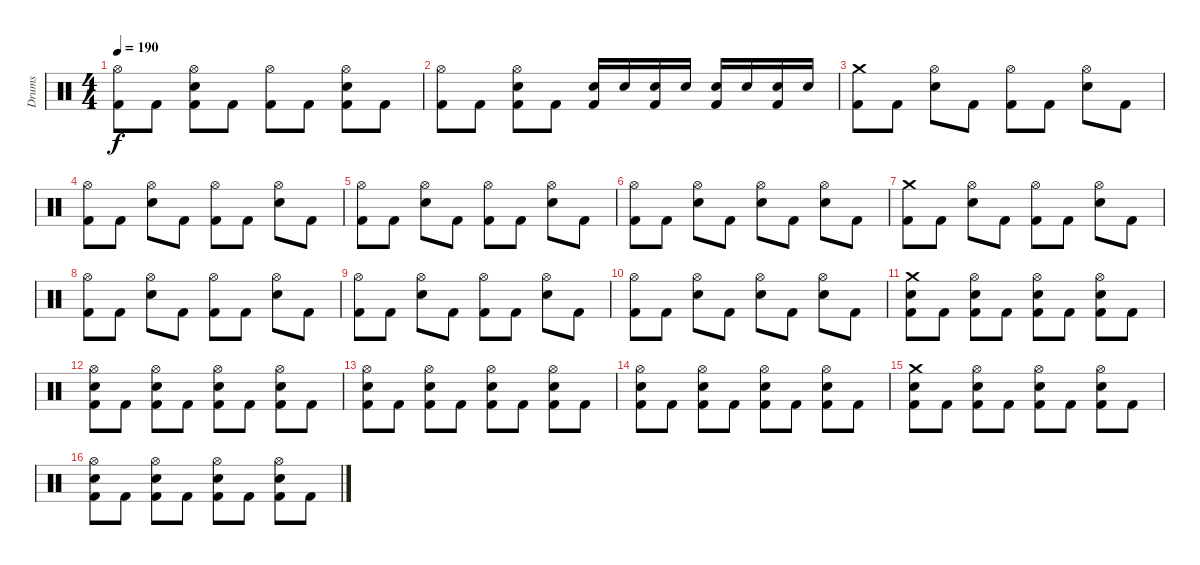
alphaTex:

\track ("Drums" "Drums") {instrument percussion}
\staff {score}
\articulation defaults
\ts (4 4)
\tempo 190
\clef neutral
\ks c
("Hi-Hat (open)" "Kick (hit) 2").8{dy f} "Kick (hit) 2".8 ("Hi-Hat (open)" "Kick (hit) 2" "Snare (hit) 2").8 "Kick (hit) 2".8 ("Hi-Hat (open)" "Kick (hit) 2").8 "Kick (hit) 2".8 ("Hi-Hat (open)" "Kick (hit) 2" "Snare (hit) 2").8 "Kick (hit) 2".8 |
("Hi-Hat (open)" "Kick (hit) 2").8 "Kick (hit) 2".8 ("Hi-Hat (open)" "Kick (hit) 2" "Snare (hit) 2").8 "Kick (hit) 2".8 ("Kick (hit) 2" "Snare (hit) 2").16 "Snare (hit) 2".16 ("Kick (hit) 2" "Snare (hit) 2").16 "Snare (hit) 2".16 ("Kick (hit) 2" "Snare (hit) 2").16 "Snare (hit) 2".16 ("Kick (hit) 2" "Snare (hit) 2").16 "Snare (hit) 2".16 |
("Crash medium (hit)" "Kick (hit) 2").8 "Kick (hit) 2".8 ("Hi-Hat (open)" "Snare (hit) 2").8 "Kick (hit) 2".8 ("Hi-Hat (open)" "Kick (hit) 2").8 "Kick (hit) 2".8 ("Hi-Hat (open)" "Snare (hit) 2").8 "Kick (hit) 2".8 |
("Hi-Hat (open)" "Kick (hit) 2").8 "Kick (hit) 2".8 ("Hi-Hat (open)" "Snare (hit) 2").8 "Kick (hit) 2".8 ("Hi-Hat (open)" "Kick (hit) 2").8 "Kick (hit) 2".8 ("Hi-Hat (open)" "Snare (hit) 2").8 "Kick (hit) 2".8 |
("Hi-Hat (open)" "Kick (hit) 2").8 "Kick (hit) 2".8 ("Hi-Hat (open)" "Snare (hit) 2").8 "Kick (hit) 2".8 ("Hi-Hat (open)" "Kick (hit) 2").8 "Kick (hit) 2".8 ("Hi-Hat (open)" "Snare (hit) 2").8 "Kick (hit) 2".8 |
("Hi-Hat (open)" "Kick (hit) 2").8 "Kick (hit) 2".8 ("Hi-Hat (open)" "Snare (hit) 2").8 "Kick (hit) 2".8 ("Hi-Hat (open)" "Snare (hit) 2").8 "Kick (hit) 2".8 ("Hi-Hat (open)" "Snare (hit) 2").8 "Kick (hit) 2".8 |
("Crash medium (hit)" "Kick (hit) 2").8 "Kick (hit) 2".8 ("Hi-Hat (open)" "Snare (hit) 2").8 "Kick (hit) 2".8 ("Hi-Hat (open)" "Kick (hit) 2").8 "Kick (hit) 2".8 ("Hi-Hat (open)" "Snare (hit) 2").8 "Kick (hit) 2".8 |
("Hi-Hat (open)" "Kick (hit) 2").8 "Kick (hit) 2".8 ("Hi-Hat (open)" "Snare (hit) 2").8 "Kick (hit) 2".8 ("Hi-Hat (open)" "Kick (hit) 2").8 "Kick (hit) 2".8 ("Hi-Hat (open)" "Snare (hit) 2").8 "Kick (hit) 2".8 |
("Hi-Hat (open)" "Kick (hit) 2").8 "Kick (hit) 2".8 ("Hi-Hat (open)" "Snare (hit) 2").8 "Kick (hit) 2".8 ("Hi-Hat (open)" "Kick (hit) 2").8 "Kick (hit) 2".8 ("Hi-Hat (open)" "Snare (hit) 2").8 "Kick (hit) 2".8 |
("Hi-Hat (open)" "Kick (hit) 2").8 "Kick (hit) 2".8 ("Hi-Hat (open)" "Snare (hit) 2").8 "Kick (hit) 2".8 ("Hi-Hat (open)" "Snare (hit) 2").8 "Kick (hit) 2".8 ("Hi-Hat (open)" "Snare (hit) 2").8 "Kick (hit) 2".8 |
("Crash medium (hit)" "Kick (hit) 2" "Snare (hit) 2").8 "Kick (hit) 2".8 ("Hi-Hat (open)" "Kick (hit) 2" "Snare (hit) 2").8 "Kick (hit) 2".8 ("Hi-Hat (open)" "Kick (hit) 2" "Snare (hit) 2").8 "Kick (hit) 2".8 ("Hi-Hat (open)" "Kick (hit) 2" "Snare (hit) 2").8 "Kick (hit) 2".8 |
("Hi-Hat (open)" "Kick (hit) 2" "Snare (hit) 2").8 "Kick (hit) 2".8 ("Hi-Hat (open)" "Kick (hit) 2" "Snare (hit) 2").8 "Kick (hit) 2".8 ("Hi-Hat (open)" "Kick (hit) 2" "Snare (hit) 2").8 "Kick (hit) 2".8 ("Hi-Hat (open)" "Kick (hit) 2" "Snare (hit) 2").8 "Kick (hit) 2".8 |
("Hi-Hat (open)" "Kick (hit) 2" "Snare (hit) 2").8 "Kick (hit) 2".8 ("Hi-Hat (open)" "Kick (hit) 2" "Snare (hit) 2").8 "Kick (hit) 2".8 ("Hi-Hat (open)" "Kick (hit) 2" "Snare (hit) 2").8 "Kick (hit) 2".8 ("Hi-Hat (open)" "Kick (hit) 2" "Snare (hit) 2").8 "Kick (hit) 2".8 |
("Hi-Hat (open)" "Kick (hit) 2" "Snare (hit) 2").8 "Kick (hit) 2".8 ("Hi-Hat (open)" "Kick (hit) 2" "Snare (hit) 2").8 "Kick (hit) 2".8 ("Hi-Hat (open)" "Kick (hit) 2" "Snare (hit) 2").8 "Kick (hit) 2".8 ("Hi-Hat (open)" "Kick (hit) 2" "Snare (hit) 2").8 "Kick (hit) 2".8 |
("Crash medium (hit)" "Kick (hit) 2" "Snare (hit) 2").8 "Kick (hit) 2".8 ("Hi-Hat (open)" "Kick (hit) 2" "Snare (hit) 2").8 "Kick (hit) 2".8 ("Hi-Hat (open)" "Kick (hit) 2" "Snare (hit) 2").8 "Kick (hit) 2".8 ("Hi-Hat (open)" "Kick (hit) 2" "Snare (hit) 2").8 "Kick (hit) 2".8 |
("Hi-Hat (open)" "Kick (hit) 2" "Snare (hit) 2").8 "Kick (hit) 2".8 ("Hi-Hat (open)" "Kick (hit) 2" "Snare (hit) 2").8 "Kick (hit) 2".8 ("Hi-Hat (open)" "Kick (hit) 2" "Snare (hit) 2").8 "Kick (hit) 2".8 ("Hi-Hat (open)" "Kick (hit) 2" "Snare (hit) 2").8 "Kick (hit) 2".8
